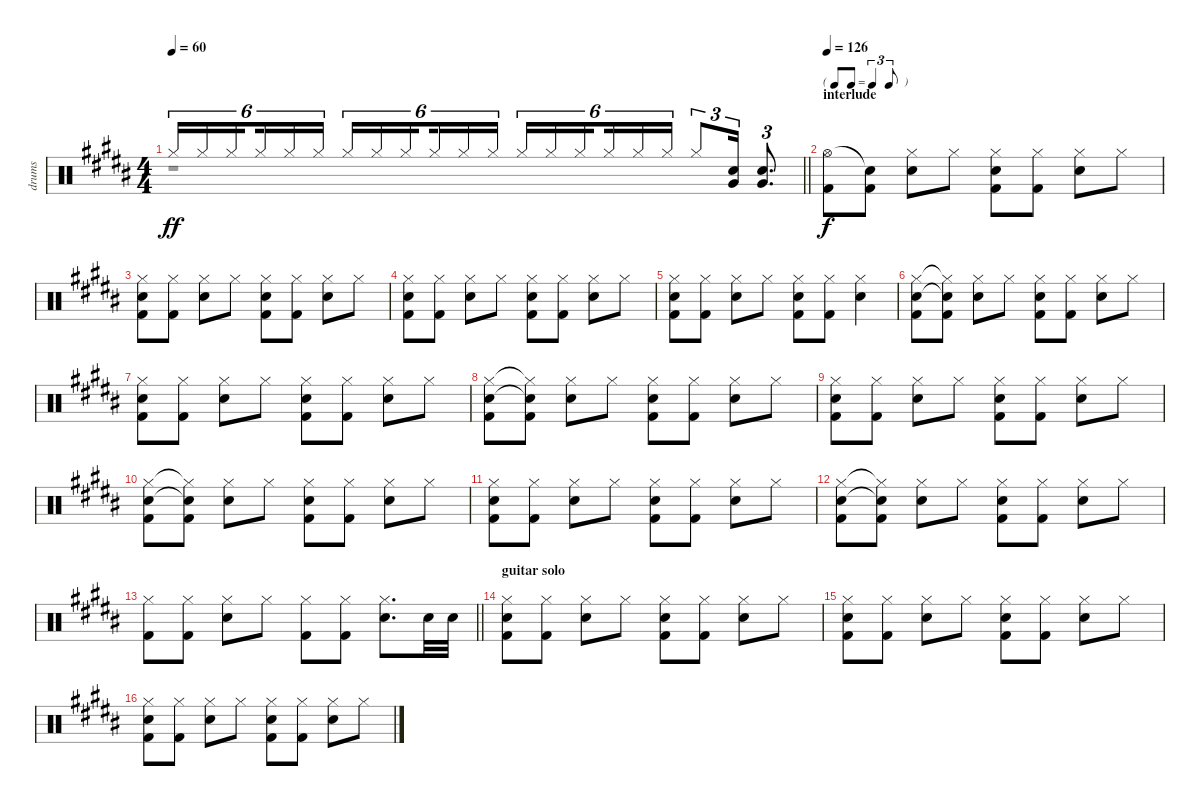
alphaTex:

\track ("drums" "drums") {instrument percussion}
\staff {score}
\articulation defaults
\voice
\ts (4 4)
\tempo 60
\clef neutral
\barLineRight lightlight
\ks b "Hi-Hat (closed)".16{tu (6 4) dy ff} "Hi-Hat (closed)".16{tu (6 4)} "Hi-Hat (closed)".16{tu (6 4) beam splitsecondary} "Hi-Hat (closed)".16{tu (6 4)} "Hi-Hat (closed)".16{tu (6 4)} "Hi-Hat (closed)".16{tu (6 4)} "Hi-Hat (closed)".16{tu (6 4)} "Hi-Hat (closed)".16{tu (6 4)} "Hi-Hat (closed)".16{tu (6 4) beam splitsecondary} "Hi-Hat (closed)".16{tu (6 4)} "Hi-Hat (closed)".16{tu (6 4)} "Hi-Hat (closed)".16{tu (6 4)} "Hi-Hat (closed)".16{tu (6 4)} "Hi-Hat (closed)".16{tu (6 4)} "Hi-Hat (closed)".16{tu (6 4) beam splitsecondary} "Hi-Hat (closed)".16{tu (6 4)} "Hi-Hat (closed)".16{tu (6 4)} "Hi-Hat (closed)".16{tu (6 4)} "Hi-Hat (closed)".8{tu (3 2)}
("Electric Snare (hit)" "Very Low Tom (hit)").16{tu (3 2)} ("Electric Snare (hit)" "Very Low Tom (hit)").8{d tu (3 2)} |
\tf triplet8th
\section ("" "interlude")
\tempo 126
("Hi-Hat (open)" "Kick (hit) 2").8{dy f} ("Snare (hit)"{t} "Kick (hit) 2").8 ("Hi-Hat (closed)" "Electric Snare (hit)").8 "Hi-Hat (closed)".8 ("Hi-Hat (closed)" "Electric Snare (hit)" "Kick (hit) 2").8 ("Hi-Hat (closed)" "Kick (hit) 2").8 ("Hi-Hat (closed)" "Electric Snare (hit)").8 "Hi-Hat (closed)".8 |
("Hi-Hat (closed)" "Electric Snare (hit)" "Kick (hit) 2").8 ("Hi-Hat (closed)" "Kick (hit) 2").8 ("Hi-Hat (closed)" "Electric Snare (hit)").8 "Hi-Hat (closed)".8 ("Hi-Hat (closed)" "Electric Snare (hit)" "Kick (hit) 2").8 ("Hi-Hat (closed)" "Kick (hit) 2").8 ("Hi-Hat (closed)" "Electric Snare (hit)").8 "Hi-Hat (closed)".8 |
("Hi-Hat (closed)" "Electric Snare (hit)" "Kick (hit) 2").8 ("Hi-Hat (closed)" "Kick (hit) 2").8 ("Hi-Hat (closed)" "Electric Snare (hit)").8 "Hi-Hat (closed)".8 ("Hi-Hat (closed)" "Electric Snare (hit)" "Kick (hit) 2").8 ("Hi-Hat (closed)" "Kick (hit) 2").8 ("Hi-Hat (closed)" "Electric Snare (hit)").8 "Hi-Hat (closed)".8 |
("Hi-Hat (closed)" "Electric Snare (hit)" "Kick (hit) 2").8 ("Hi-Hat (closed)" "Kick (hit) 2").8 ("Hi-Hat (closed)" "Electric Snare (hit)").8 "Hi-Hat (closed)".8 ("Hi-Hat (closed)" "Electric Snare (hit)" "Kick (hit) 2").8 ("Hi-Hat (closed)" "Kick (hit) 2").8 ("Hi-Hat (closed)" "Electric Snare (hit)").4 |
("Hi-Hat (closed)" "Electric Snare (hit)" "Kick (hit) 2").8 ("Hi-Hat (closed)"{t} "Snare (hit)"{t} "Kick (hit) 2").8 ("Hi-Hat (closed)" "Electric Snare (hit)").8 "Hi-Hat (closed)".8 ("Hi-Hat (closed)" "Electric Snare (hit)" "Kick (hit) 2").8 ("Hi-Hat (closed)" "Kick (hit) 2").8 ("Hi-Hat (closed)" "Electric Snare (hit)").8 "Hi-Hat (closed)".8 |
("Hi-Hat (closed)" "Electric Snare (hit)" "Kick (hit) 2").8 ("Hi-Hat (closed)" "Kick (hit) 2").8 ("Hi-Hat (closed)" "Electric Snare (hit)").8 "Hi-Hat (closed)".8 ("Hi-Hat (closed)" "Electric Snare (hit)" "Kick (hit) 2").8 ("Hi-Hat (closed)" "Kick (hit) 2").8 ("Hi-Hat (closed)" "Electric Snare (hit)").8 "Hi-Hat (closed)".8 |
("Hi-Hat (closed)" "Electric Snare (hit)" "Kick (hit) 2").8 ("Hi-Hat (closed)"{t} "Snare (hit)"{t} "Kick (hit) 2").8 ("Hi-Hat (closed)" "Electric Snare (hit)").8 "Hi-Hat (closed)".8 ("Hi-Hat (closed)" "Electric Snare (hit)" "Kick (hit) 2").8 ("Hi-Hat (closed)" "Kick (hit) 2").8 ("Hi-Hat (closed)" "Electric Snare (hit)").8 "Hi-Hat (closed)".8 |
("Hi-Hat (closed)" "Electric Snare (hit)" "Kick (hit) 2").8 ("Hi-Hat (closed)" "Kick (hit) 2").8 ("Hi-Hat (closed)" "Electric Snare (hit)").8 "Hi-Hat (closed)".8 ("Hi-Hat (closed)" "Electric Snare (hit)" "Kick (hit) 2").8 ("Hi-Hat (closed)" "Kick (hit) 2").8 ("Hi-Hat (closed)" "Electric Snare (hit)").8 "Hi-Hat (closed)".8 |
("Hi-Hat (closed)" "Electric Snare (hit)" "Kick (hit) 2").8 ("Hi-Hat (closed)"{t} "Snare (hit)"{t} "Kick (hit) 2").8 ("Hi-Hat (closed)" "Electric Snare (hit)").8 "Hi-Hat (closed)".8 ("Hi-Hat (closed)" "Electric Snare (hit)" "Kick (hit) 2").8 ("Hi-Hat (closed)" "Kick (hit) 2").8 ("Hi-Hat (closed)" "Electric Snare (hit)").8 "Hi-Hat (closed)".8 |
("Hi-Hat (closed)" "Electric Snare (hit)" "Kick (hit) 2").8 ("Hi-Hat (closed)" "Kick (hit) 2").8 ("Hi-Hat (closed)" "Electric Snare (hit)").8 "Hi-Hat (closed)".8 ("Hi-Hat (closed)" "Electric Snare (hit)" "Kick (hit) 2").8 ("Hi-Hat (closed)" "Kick (hit) 2").8 ("Hi-Hat (closed)" "Electric Snare (hit)").8 "Hi-Hat (closed)".8 |
("Hi-Hat (closed)" "Electric Snare (hit)" "Kick (hit) 2").8 ("Hi-Hat (closed)"{t} "Snare (hit)"{t} "Kick (hit) 2").8 ("Hi-Hat (closed)" "Electric Snare (hit)").8 "Hi-Hat (closed)".8 ("Hi-Hat (closed)" "Electric Snare (hit)" "Kick (hit) 2").8 ("Hi-Hat (closed)" "Kick (hit) 2").8 ("Hi-Hat (closed)" "Electric Snare (hit)").8 "Hi-Hat (closed)".8 |
\barLineRight lightlight
("Hi-Hat (closed)" "Kick (hit) 2").8 ("Hi-Hat (closed)" "Kick (hit) 2").8 ("Hi-Hat (closed)" "Electric Snare (hit)").8 "Hi-Hat (closed)".8 ("Hi-Hat (closed)" "Kick (hit) 2").8 ("Hi-Hat (closed)" "Kick (hit) 2").8 ("Hi-Hat (closed)" "Electric Snare (hit)").8{d} "Electric Snare (hit)".32 "Electric Snare (hit)".32 |
\section ("" "guitar solo")
("Hi-Hat (closed)" "Electric Snare (hit)" "Kick (hit) 2").8{volume 6} ("Hi-Hat (closed)" "Kick (hit) 2").8 ("Hi-Hat (closed)" "Electric Snare (hit)").8 "Hi-Hat (closed)".8 ("Hi-Hat (closed)" "Electric Snare (hit)" "Kick (hit) 2").8 ("Hi-Hat (closed)" "Kick (hit) 2").8 ("Hi-Hat (closed)" "Electric Snare (hit)").8 "Hi-Hat (closed)".8 |
("Hi-Hat (closed)" "Electric Snare (hit)" "Kick (hit) 2").8 ("Hi-Hat (closed)" "Kick (hit) 2").8 ("Hi-Hat (closed)" "Electric Snare (hit)").8 "Hi-Hat (closed)".8 ("Hi-Hat (closed)" "Electric Snare (hit)" "Kick (hit) 2").8 ("Hi-Hat (closed)" "Kick (hit) 2").8 ("Hi-Hat (closed)" "Electric Snare (hit)").8 "Hi-Hat (closed)".8 |
("Hi-Hat (closed)" "Electric Snare (hit)" "Kick (hit) 2").8 ("Hi-Hat (closed)" "Kick (hit) 2").8 ("Hi-Hat (closed)" "Electric Snare (hit)").8 "Hi-Hat (closed)".8 ("Hi-Hat (closed)" "Electric Snare (hit)" "Kick (hit) 2").8 ("Hi-Hat (closed)" "Kick (hit) 2").8 ("Hi-Hat (closed)" "Electric Snare (hit)").8 "Hi-Hat (closed)".8
\voice
\clef neutral
\ottava regular
\simile none
\barLineRight lightlight
\ks b
r.1{dy ff} |
|
|
|
|
|
|
|
|
|
|
|
\barLineRight lightlight
|
|
|
